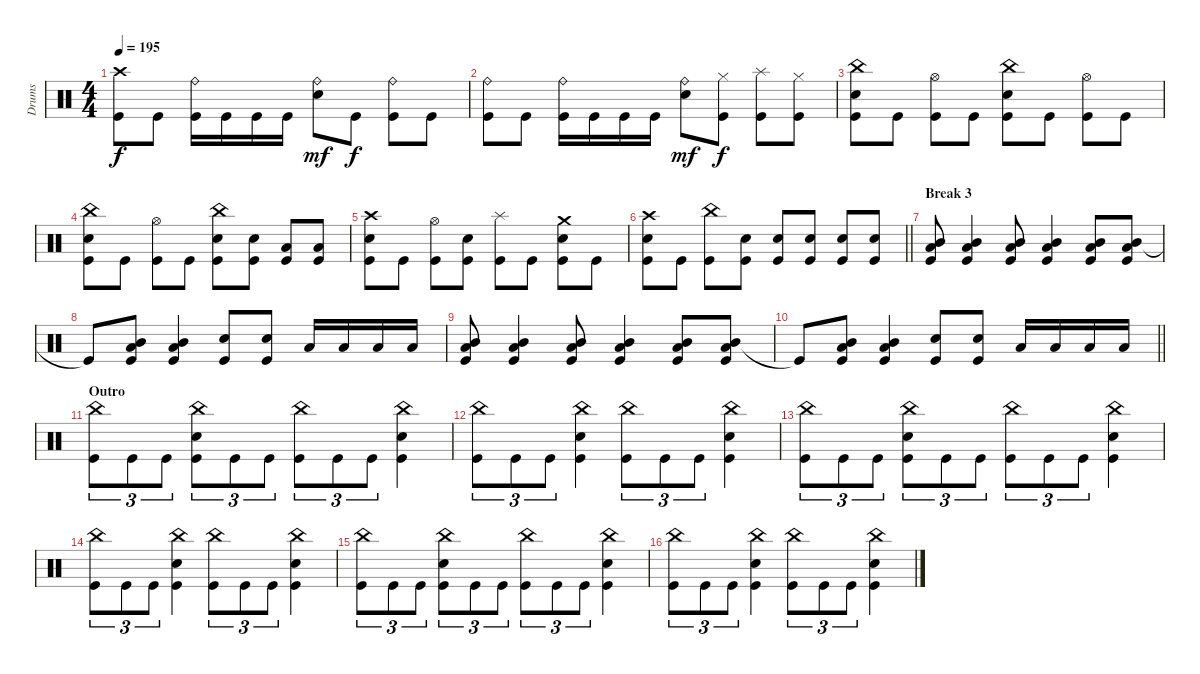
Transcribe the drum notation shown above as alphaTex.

\track ("Drums" "Drums") {instrument percussion}
\staff {score}
\articulation defaults
\ts (4 4)
\tempo 195
\clef neutral
\ks c
("Crash high (hit)" "Kick (hit)").8{dy f} "Kick (hit)".8 ("Ride (bell)" "Kick (hit)").16 "Kick (hit)".16 "Kick (hit)".16 "Kick (hit)".16 ("Ride (bell)" "Snare (hit) 2").8{dy mf} "Kick (hit)".8{dy f} ("Ride (bell)" "Kick (hit)").8 "Kick (hit)".8 |
("Ride (bell)" "Kick (hit)").8 "Kick (hit)".8 ("Ride (bell)" "Kick (hit)").16 "Kick (hit)".16 "Kick (hit)".16 "Kick (hit)".16 ("Ride (bell)" "Snare (hit) 2").8{dy mf} ("Hi-Hat (closed)" "Kick (hit)").8{dy f} ("Splash (hit)" "Kick (hit)").8 ("Hi-Hat (closed)" "Kick (hit)").8 |
("China (hit)" "Snare (hit) 2" "Kick (hit)").8 "Kick (hit)".8 ("Hi-Hat (open)" "Kick (hit)").8 "Kick (hit)".8 ("China (hit)" "Snare (hit) 2" "Kick (hit)").8 "Kick (hit)".8 ("Hi-Hat (open)" "Kick (hit)").8 "Kick (hit)".8 |
("China (hit)" "Snare (hit) 2" "Kick (hit)").8 "Kick (hit)".8 ("Hi-Hat (open)" "Kick (hit)").8 "Kick (hit)".8 ("China (hit)" "Snare (hit) 2" "Kick (hit)").8 ("Snare (hit) 2" "Kick (hit)").8 ("Low Tom (hit)" "Kick (hit)").8 ("Low Tom (hit)" "Kick (hit)").8 |
("Crash high (hit)" "Snare (hit) 2" "Kick (hit)").8 "Kick (hit)".8 ("Hi-Hat (open)" "Kick (hit)").8 ("Snare (hit) 2" "Kick (hit)").8 ("Splash (hit)" "Kick (hit)").8 "Kick (hit)".8 ("Crash medium (hit)" "Snare (hit) 2" "Kick (hit)").8 "Kick (hit)".8 |
\barLineRight lightlight
("Crash high (hit)" "Snare (hit) 2" "Kick (hit)").8 "Kick (hit)".8 ("China (hit)" "Kick (hit)").8 ("Snare (hit) 2" "Kick (hit)").8 ("Snare (hit) 2" "Kick (hit)").8 ("Snare (hit) 2" "Kick (hit)").8 ("Snare (hit) 2" "Kick (hit)").8 ("Snare (hit) 2" "Kick (hit)").8 |
\section ("" "Break 3")
("Mid Tom (hit)" "Low Floor Tom (hit)" "Kick (hit)").8 ("Mid Tom (hit)" "Low Floor Tom (hit)" "Kick (hit)").4 ("Mid Tom (hit)" "Low Floor Tom (hit)" "Kick (hit)").8 ("Mid Tom (hit)" "Low Floor Tom (hit)" "Kick (hit)").4 ("Mid Tom (hit)" "Low Floor Tom (hit)" "Kick (hit)").8 ("Mid Tom (hit)" "Low Floor Tom (hit)" "Kick (hit)").8 |
"Kick (hit)"{t}.8 ("Mid Tom (hit)" "Low Floor Tom (hit)" "Kick (hit)").8 ("Mid Tom (hit)" "Low Floor Tom (hit)" "Kick (hit)").4 ("Snare (hit) 2" "Kick (hit)").8 ("Snare (hit) 2" "Kick (hit)").8 "Low Tom (hit)".16 "Low Tom (hit)".16 "Low Tom (hit)".16 "Low Tom (hit)".16 |
("Mid Tom (hit)" "Low Floor Tom (hit)" "Kick (hit)").8 ("Mid Tom (hit)" "Low Floor Tom (hit)" "Kick (hit)").4 ("Mid Tom (hit)" "Low Floor Tom (hit)" "Kick (hit)").8 ("Mid Tom (hit)" "Low Floor Tom (hit)" "Kick (hit)").4 ("Mid Tom (hit)" "Low Floor Tom (hit)" "Kick (hit)").8 ("Mid Tom (hit)" "Low Floor Tom (hit)" "Kick (hit)").8 |
\barLineRight lightlight "Kick (hit)"{t}.8
("Mid Tom (hit)" "Low Floor Tom (hit)" "Kick (hit)").8 ("Mid Tom (hit)" "Low Floor Tom (hit)" "Kick (hit)").4 ("Snare (hit) 2" "Kick (hit)").8 ("Snare (hit) 2" "Kick (hit)").8 "Low Tom (hit)".16 "Low Tom (hit)".16 "Low Tom (hit)".16 "Low Tom (hit)".16 |
\section ("" "Outro")
("China (hit)" "Kick (hit)").8{tu (3 2)} "Kick (hit)".8{tu (3 2)} "Kick (hit)".8{tu (3 2)} ("China (hit)" "Snare (hit) 2" "Kick (hit)").8{tu (3 2)} "Kick (hit)".8{tu (3 2)} "Kick (hit)".8{tu (3 2)} ("China (hit)" "Kick (hit)").8{tu (3 2)} "Kick (hit)".8{tu (3 2)} "Kick (hit)".8{tu (3 2)} ("China (hit)" "Snare (hit) 2" "Kick (hit)").4 |
("China (hit)" "Kick (hit)").8{tu (3 2)} "Kick (hit)".8{tu (3 2)} "Kick (hit)".8{tu (3 2)} ("China (hit)" "Snare (hit) 2" "Kick (hit)").4 ("China (hit)" "Kick (hit)").8{tu (3 2)} "Kick (hit)".8{tu (3 2)} "Kick (hit)".8{tu (3 2)} ("China (hit)" "Snare (hit) 2" "Kick (hit)").4 |
("China (hit)" "Kick (hit)").8{tu (3 2)} "Kick (hit)".8{tu (3 2)} "Kick (hit)".8{tu (3 2)} ("China (hit)" "Snare (hit) 2" "Kick (hit)").8{tu (3 2)} "Kick (hit)".8{tu (3 2)} "Kick (hit)".8{tu (3 2)} ("China (hit)" "Kick (hit)").8{tu (3 2)} "Kick (hit)".8{tu (3 2)} "Kick (hit)".8{tu (3 2)} ("China (hit)" "Snare (hit) 2" "Kick (hit)").4 |
("China (hit)" "Kick (hit)").8{tu (3 2)} "Kick (hit)".8{tu (3 2)} "Kick (hit)".8{tu (3 2)} ("China (hit)" "Snare (hit) 2" "Kick (hit)").4 ("China (hit)" "Kick (hit)").8{tu (3 2)} "Kick (hit)".8{tu (3 2)} "Kick (hit)".8{tu (3 2)} ("China (hit)" "Snare (hit) 2" "Kick (hit)").4 |
("China (hit)" "Kick (hit)").8{tu (3 2)} "Kick (hit)".8{tu (3 2)} "Kick (hit)".8{tu (3 2)} ("China (hit)" "Snare (hit) 2" "Kick (hit)").8{tu (3 2)} "Kick (hit)".8{tu (3 2)} "Kick (hit)".8{tu (3 2)} ("China (hit)" "Kick (hit)").8{tu (3 2)} "Kick (hit)".8{tu (3 2)} "Kick (hit)".8{tu (3 2)} ("China (hit)" "Snare (hit) 2" "Kick (hit)").4 |
("China (hit)" "Kick (hit)").8{tu (3 2)} "Kick (hit)".8{tu (3 2)} "Kick (hit)".8{tu (3 2)} ("China (hit)" "Snare (hit) 2" "Kick (hit)").4 ("China (hit)" "Kick (hit)").8{tu (3 2)} "Kick (hit)".8{tu (3 2)} "Kick (hit)".8{tu (3 2)} ("China (hit)" "Snare (hit) 2" "Kick (hit)").4
